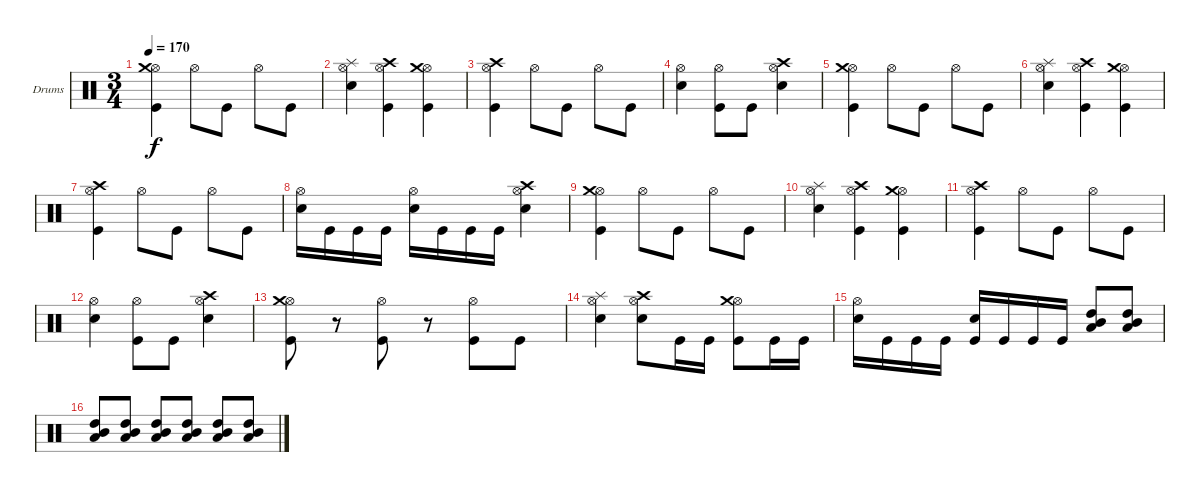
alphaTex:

\defaultSystemsLayout 4
\bracketExtendMode groupsimilarinstruments
\firstSystemTrackNameOrientation horizontal
\otherSystemsTrackNameOrientation horizontal
\track ("Drums" "Drums") {instrument percussion}
\staff {score}
\articulation defaults
\ts (3 4)
\tempo 170
\clef neutral
\ks c
("Hi-Hat (open)" "Kick (hit)" "Crash medium (hit)").4{dy f} "Hi-Hat (open)".8 "Kick (hit)".8 "Hi-Hat (open)".8 "Kick (hit)".8 |
("Hi-Hat (open)" "Snare (hit) 2" "Splash (hit)").4 ("Hi-Hat (open)" "Kick (hit)" "Crash high (hit)").4 ("Hi-Hat (open)" "Kick (hit)" "Crash medium (hit)").4 |
("Hi-Hat (open)" "Kick (hit)" "Crash high (hit)").4 "Hi-Hat (open)".8 "Kick (hit)".8 "Hi-Hat (open)".8 "Kick (hit)".8 |
("Hi-Hat (open)" "Snare (hit) 2").4 ("Hi-Hat (open)" "Kick (hit)").8 "Kick (hit)".8 ("Hi-Hat (open)" "Snare (hit) 2" "Crash high (hit)").4 |
("Hi-Hat (open)" "Kick (hit)" "Crash medium (hit)").4 "Hi-Hat (open)".8 "Kick (hit)".8 "Hi-Hat (open)".8 "Kick (hit)".8 |
("Hi-Hat (open)" "Snare (hit) 2" "Splash (hit)").4 ("Hi-Hat (open)" "Kick (hit)" "Crash high (hit)").4 ("Hi-Hat (open)" "Kick (hit)" "Crash medium (hit)").4 |
("Hi-Hat (open)" "Kick (hit)" "Crash high (hit)").4 "Hi-Hat (open)".8 "Kick (hit)".8 "Hi-Hat (open)".8 "Kick (hit)".8 |
("Hi-Hat (open)" "Snare (hit) 2").16 "Kick (hit)".16 "Kick (hit)".16 "Kick (hit)".16 ("Hi-Hat (open)" "Snare (hit) 2").16 "Kick (hit)".16 "Kick (hit)".16 "Kick (hit)".16 ("Hi-Hat (open)" "Snare (hit) 2" "Crash high (hit)").4 |
("Hi-Hat (open)" "Kick (hit)" "Crash medium (hit)").4 "Hi-Hat (open)".8 "Kick (hit)".8 "Hi-Hat (open)".8 "Kick (hit)".8 |
("Hi-Hat (open)" "Snare (hit) 2" "Splash (hit)").4 ("Hi-Hat (open)" "Kick (hit)" "Crash high (hit)").4 ("Hi-Hat (open)" "Kick (hit)" "Crash medium (hit)").4 |
("Hi-Hat (open)" "Kick (hit)" "Crash high (hit)").4 "Hi-Hat (open)".8 "Kick (hit)".8 "Hi-Hat (open)".8 "Kick (hit)".8 |
("Hi-Hat (open)" "Snare (hit) 2").4 ("Hi-Hat (open)" "Kick (hit)").8 "Kick (hit)".8 ("Hi-Hat (open)" "Snare (hit) 2" "Crash high (hit)").4 |
("Hi-Hat (open)" "Kick (hit)" "Crash medium (hit)").8 r.8 ("Hi-Hat (open)" "Kick (hit)").8 r.8 ("Hi-Hat (open)" "Kick (hit)").8 "Kick (hit)".8 |
("Hi-Hat (open)" "Snare (hit) 2" "Splash (hit)").4 ("Hi-Hat (open)" "Snare (hit) 2" "Crash high (hit)").8 "Kick (hit)".16 "Kick (hit)".16 ("Hi-Hat (open)" "Kick (hit)" "Crash medium (hit)").8 "Kick (hit)".16 "Kick (hit)".16 |
("Hi-Hat (open)" "Snare (hit) 2").16 "Kick (hit)".16 "Kick (hit)".16 "Kick (hit)".16 ("Snare (hit) 2" "Kick (hit)").16 "Kick (hit)".16 "Kick (hit)".16 "Kick (hit)".16 ("Mid Tom (hit)" "High Tom (hit)" "Low Tom (hit)").8 ("Mid Tom (hit)" "High Tom (hit)" "Low Tom (hit)").8 |
("Mid Tom (hit)" "High Tom (hit)" "Low Tom (hit)").8 ("Mid Tom (hit)" "High Tom (hit)" "Low Tom (hit)").8 ("Mid Tom (hit)" "High Tom (hit)" "Low Tom (hit)").8 ("Mid Tom (hit)" "High Tom (hit)" "Low Tom (hit)").8 ("Mid Tom (hit)" "High Tom (hit)" "Low Tom (hit)").8 ("Mid Tom (hit)" "High Tom (hit)" "Low Tom (hit)").8
